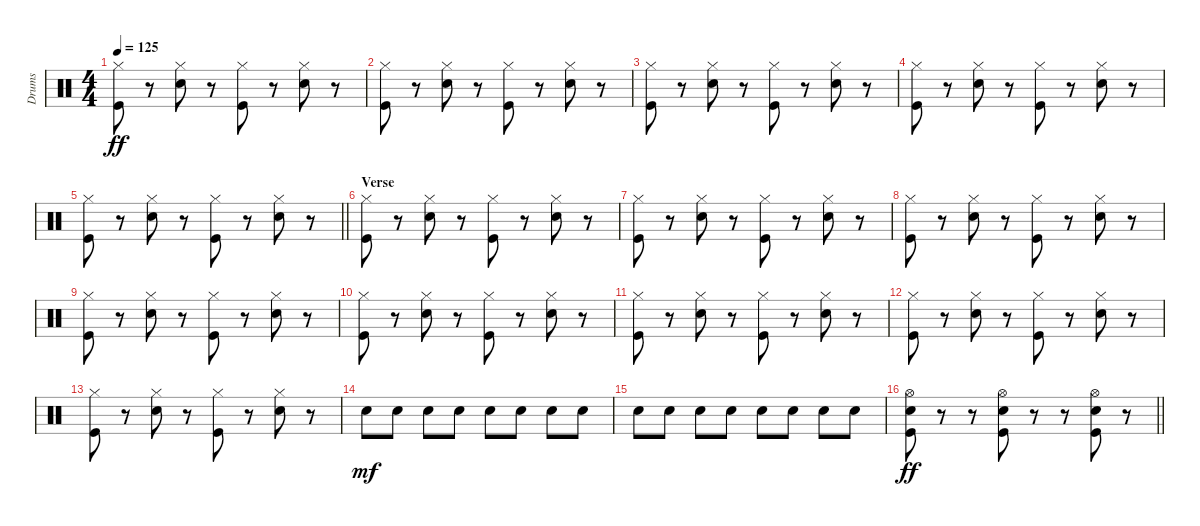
\track ("Drums" "Drums") {instrument percussion}
\staff {score}
\articulation defaults
\ts (4 4)
\tempo 125
\clef neutral
\ks c
("Hi-Hat (closed)" "Kick (hit)").8{dy ff} r.8 ("Hi-Hat (closed)" "Snare (hit) 2").8 r.8 ("Hi-Hat (closed)" "Kick (hit)").8 r.8 ("Hi-Hat (closed)" "Snare (hit) 2").8 r.8 |
("Hi-Hat (closed)" "Kick (hit)").8 r.8 ("Hi-Hat (closed)" "Snare (hit) 2").8 r.8 ("Hi-Hat (closed)" "Kick (hit)").8 r.8 ("Hi-Hat (closed)" "Snare (hit) 2").8 r.8 |
("Hi-Hat (closed)" "Kick (hit)").8 r.8 ("Hi-Hat (closed)" "Snare (hit) 2").8 r.8 ("Hi-Hat (closed)" "Kick (hit)").8 r.8 ("Hi-Hat (closed)" "Snare (hit) 2").8 r.8 |
("Hi-Hat (closed)" "Kick (hit)").8 r.8 ("Hi-Hat (closed)" "Snare (hit) 2").8 r.8 ("Hi-Hat (closed)" "Kick (hit)").8 r.8 ("Hi-Hat (closed)" "Snare (hit) 2").8 r.8 |
\barLineRight lightlight
("Hi-Hat (closed)" "Kick (hit)").8 r.8 ("Hi-Hat (closed)" "Snare (hit) 2").8 r.8 ("Hi-Hat (closed)" "Kick (hit)").8 r.8 ("Hi-Hat (closed)" "Snare (hit) 2").8 r.8 |
\section ("" "Verse")
("Hi-Hat (closed)" "Kick (hit)").8 r.8 ("Hi-Hat (closed)" "Snare (hit) 2").8 r.8 ("Hi-Hat (closed)" "Kick (hit)").8 r.8 ("Hi-Hat (closed)" "Snare (hit) 2").8 r.8 |
("Hi-Hat (closed)" "Kick (hit)").8 r.8 ("Hi-Hat (closed)" "Snare (hit) 2").8 r.8 ("Hi-Hat (closed)" "Kick (hit)").8 r.8 ("Hi-Hat (closed)" "Snare (hit) 2").8 r.8 |
("Hi-Hat (closed)" "Kick (hit)").8 r.8 ("Hi-Hat (closed)" "Snare (hit) 2").8 r.8 ("Hi-Hat (closed)" "Kick (hit)").8 r.8 ("Hi-Hat (closed)" "Snare (hit) 2").8 r.8 |
("Hi-Hat (closed)" "Kick (hit)").8 r.8 ("Hi-Hat (closed)" "Snare (hit) 2").8 r.8 ("Hi-Hat (closed)" "Kick (hit)").8 r.8 ("Hi-Hat (closed)" "Snare (hit) 2").8 r.8 |
("Hi-Hat (closed)" "Kick (hit)").8 r.8 ("Hi-Hat (closed)" "Snare (hit) 2").8 r.8 ("Hi-Hat (closed)" "Kick (hit)").8 r.8 ("Hi-Hat (closed)" "Snare (hit) 2").8 r.8 |
("Hi-Hat (closed)" "Kick (hit)").8 r.8 ("Hi-Hat (closed)" "Snare (hit) 2").8 r.8 ("Hi-Hat (closed)" "Kick (hit)").8 r.8 ("Hi-Hat (closed)" "Snare (hit) 2").8 r.8 |
("Hi-Hat (closed)" "Kick (hit)").8 r.8 ("Hi-Hat (closed)" "Snare (hit) 2").8 r.8 ("Hi-Hat (closed)" "Kick (hit)").8 r.8 ("Hi-Hat (closed)" "Snare (hit) 2").8 r.8 |
("Hi-Hat (closed)" "Kick (hit)").8 r.8 ("Hi-Hat (closed)" "Snare (hit) 2").8 r.8 ("Hi-Hat (closed)" "Kick (hit)").8 r.8 ("Hi-Hat (closed)" "Snare (hit) 2").8 r.8 |
"Snare (hit) 2".8{dy mf} "Snare (hit) 2".8 "Snare (hit) 2".8 "Snare (hit) 2".8 "Snare (hit) 2".8 "Snare (hit) 2".8 "Snare (hit) 2".8 "Snare (hit) 2".8 |
"Snare (hit) 2".8 "Snare (hit) 2".8 "Snare (hit) 2".8 "Snare (hit) 2".8 "Snare (hit) 2".8 "Snare (hit) 2".8 "Snare (hit) 2".8 "Snare (hit) 2".8 |
\barLineRight lightlight
("Hi-Hat (open)" "Snare (hit) 2" "Kick (hit)").8{dy ff} r.8 r.8 ("Hi-Hat (open)" "Snare (hit) 2" "Kick (hit)").8 r.8 r.8 ("Hi-Hat (open)" "Snare (hit) 2" "Kick (hit)").8 r.8
